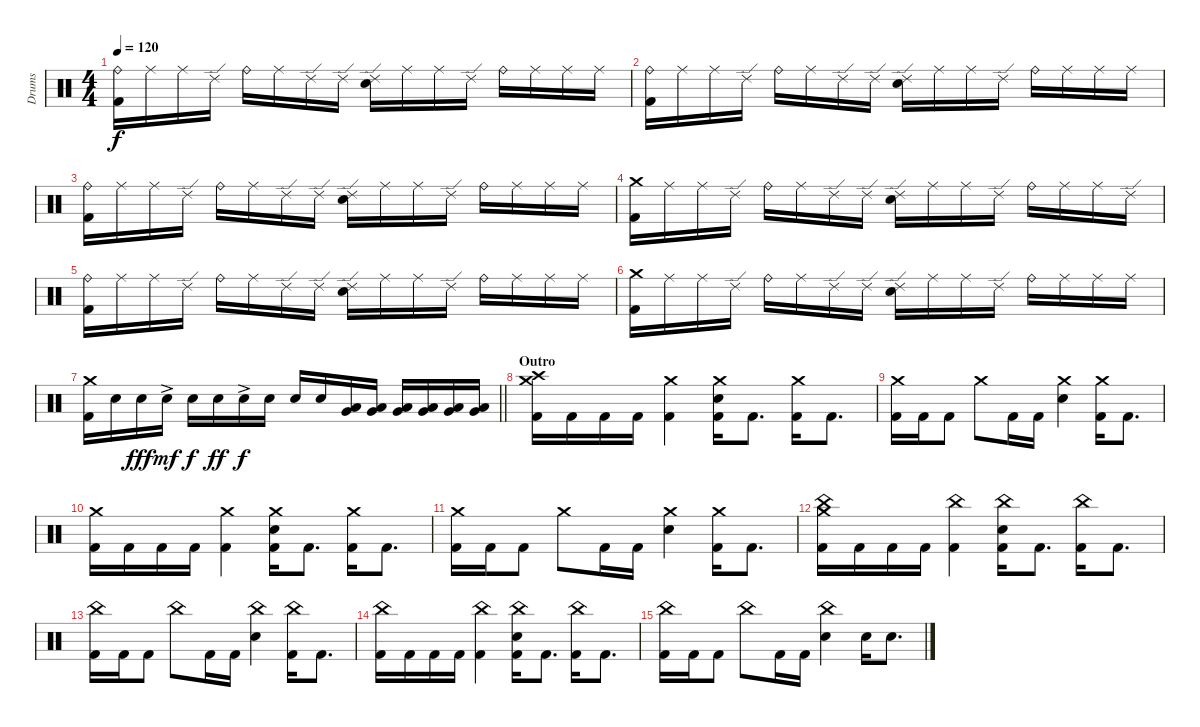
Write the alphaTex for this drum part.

\track ("Drums" "Drums") {instrument percussion}
\staff {score}
\articulation defaults
\ts (4 4)
\tempo 120
\clef neutral
\ks c
("Ride (bell)" "Kick (hit) 2").16{dy f} "Ride (middle)".16 "Ride (middle)".16 "Ride (edge) 2".16 "Ride (bell)".16 "Ride (middle)".16 "Ride (edge) 2".16 "Ride (edge) 2".16 ("Ride (edge) 2" "Electric Snare (hit)").16 "Ride (middle)".16 "Ride (middle)".16 "Ride (edge) 2".16 "Ride (bell)".16 "Ride (middle)".16 "Ride (middle)".16 "Ride (middle)".16 |
("Ride (bell)" "Kick (hit) 2").16 "Ride (middle)".16 "Ride (middle)".16 "Ride (edge) 2".16 "Ride (bell)".16 "Ride (middle)".16 "Ride (edge) 2".16 "Ride (edge) 2".16 ("Ride (edge) 2" "Electric Snare (hit)").16 "Ride (middle)".16 "Ride (middle)".16 "Ride (edge) 2".16 "Ride (bell)".16 "Ride (middle)".16 "Ride (middle)".16 "Ride (middle)".16 |
("Ride (bell)" "Kick (hit) 2").16 "Ride (middle)".16 "Ride (middle)".16 "Ride (edge) 2".16 "Ride (bell)".16 "Ride (middle)".16 "Ride (edge) 2".16 "Ride (edge) 2".16 ("Ride (edge) 2" "Electric Snare (hit)").16 "Ride (middle)".16 "Ride (middle)".16 "Ride (edge) 2".16 "Ride (bell)".16 "Ride (middle)".16 "Ride (middle)".16 "Ride (middle)".16 |
("Crash medium (hit)" "Kick (hit) 2").16 "Ride (middle)".16 "Ride (middle)".16 "Ride (edge) 2".16 "Ride (bell)".16 "Ride (middle)".16 "Ride (edge) 2".16 "Ride (edge) 2".16 ("Ride (edge) 2" "Electric Snare (hit)").16 "Ride (middle)".16 "Ride (middle)".16 "Ride (edge) 2".16 "Ride (bell)".16 "Ride (middle)".16 "Ride (middle)".16 "Ride (edge) 2".16 |
("Ride (bell)" "Kick (hit) 2").16 "Ride (middle)".16 "Ride (middle)".16 "Ride (edge) 2".16 "Ride (bell)".16 "Ride (middle)".16 "Ride (edge) 2".16 "Ride (edge) 2".16 ("Ride (edge) 2" "Electric Snare (hit)").16 "Ride (middle)".16 "Ride (middle)".16 "Ride (edge) 2".16 "Ride (bell)".16 "Ride (middle)".16 "Ride (middle)".16 "Ride (middle)".16 |
("Crash medium (hit)" "Kick (hit) 2").16 "Ride (middle)".16 "Ride (middle)".16 "Ride (edge) 2".16 "Ride (bell)".16 "Ride (middle)".16 "Ride (edge) 2".16 "Ride (edge) 2".16 ("Ride (edge) 2" "Electric Snare (hit)").16 "Ride (middle)".16 "Ride (middle)".16 "Ride (edge) 2".16 "Ride (bell)".16 "Ride (middle)".16 "Ride (middle)".16 "Ride (middle)".16 |
\barLineRight lightlight
("Crash medium (hit)" "Kick (hit) 2").16 "Electric Snare (hit)".16 "Electric Snare (hit)".16{dy fff} "Electric Snare (hit)"{ac}.16{dy mf} "Electric Snare (hit)".16{dy f} "Electric Snare (hit)".16{dy ff} "Electric Snare (hit)"{ac}.16{dy f} "Electric Snare (hit)".16 "Electric Snare (hit)".16 "Electric Snare (hit)".16 ("Low Tom (hit)" "Very Low Tom (hit)").16 ("Low Tom (hit)" "Very Low Tom (hit)").16 ("Low Tom (hit)" "Very Low Tom (hit)").16 ("Very Low Tom (hit)" "Low Floor Tom (hit)").16 ("Very Low Tom (hit)" "Low Floor Tom (hit)").16 ("Very Low Tom (hit)" "Low Floor Tom (hit)").16 |
\section ("" "Outro")
("Crash medium (hit)" "Crash high (hit)" "Kick (hit) 2").16 "Kick (hit) 2".16 "Kick (hit) 2".16 "Kick (hit) 2".16 ("Crash medium (hit)" "Kick (hit) 2").4 ("Crash medium (hit)" "Electric Snare (hit)" "Kick (hit) 2").16 "Kick (hit) 2".8{d} ("Crash medium (hit)" "Kick (hit) 2").16 "Kick (hit) 2".8{d} |
("Crash medium (hit)" "Kick (hit) 2").16 "Kick (hit) 2".16 "Kick (hit) 2".8 "Crash medium (hit)".8 "Kick (hit) 2".16 "Kick (hit) 2".16 ("Crash medium (hit)" "Electric Snare (hit)").4 ("Crash medium (hit)" "Kick (hit) 2").16 "Kick (hit) 2".8{d} |
("Crash medium (hit)" "Kick (hit) 2").16 "Kick (hit) 2".16 "Kick (hit) 2".16 "Kick (hit) 2".16 ("Crash medium (hit)" "Kick (hit) 2").4 ("Crash medium (hit)" "Electric Snare (hit)" "Kick (hit) 2").16 "Kick (hit) 2".8{d} ("Crash medium (hit)" "Kick (hit) 2").16 "Kick (hit) 2".8{d} |
("Crash medium (hit)" "Kick (hit) 2").16 "Kick (hit) 2".16 "Kick (hit) 2".8 "Crash medium (hit)".8 "Kick (hit) 2".16 "Kick (hit) 2".16 ("Crash medium (hit)" "Electric Snare (hit)").4 ("Crash medium (hit)" "Kick (hit) 2").16 "Kick (hit) 2".8{d} |
("Crash medium (hit)" "China (hit)" "Kick (hit) 2").16 "Kick (hit) 2".16 "Kick (hit) 2".16 "Kick (hit) 2".16 ("China (hit)" "Kick (hit) 2").4 ("China (hit)" "Electric Snare (hit)" "Kick (hit) 2").16 "Kick (hit) 2".8{d} ("China (hit)" "Kick (hit) 2").16 "Kick (hit) 2".8{d} |
("China (hit)" "Kick (hit) 2").16 "Kick (hit) 2".16 "Kick (hit) 2".8 "China (hit)".8 "Kick (hit) 2".16 "Kick (hit) 2".16 ("China (hit)" "Electric Snare (hit)").4 ("China (hit)" "Kick (hit) 2").16 "Kick (hit) 2".8{d} |
("China (hit)" "Kick (hit) 2").16 "Kick (hit) 2".16 "Kick (hit) 2".16 "Kick (hit) 2".16 ("China (hit)" "Kick (hit) 2").4 ("China (hit)" "Electric Snare (hit)" "Kick (hit) 2").16 "Kick (hit) 2".8{d} ("China (hit)" "Kick (hit) 2").16 "Kick (hit) 2".8{d} |
("China (hit)" "Kick (hit) 2").16 "Kick (hit) 2".16 "Kick (hit) 2".8 "China (hit)".8 "Kick (hit) 2".16 "Kick (hit) 2".16 ("China (hit)" "Electric Snare (hit)").4 "Electric Snare (hit)".16 "Electric Snare (hit)".8{d}
